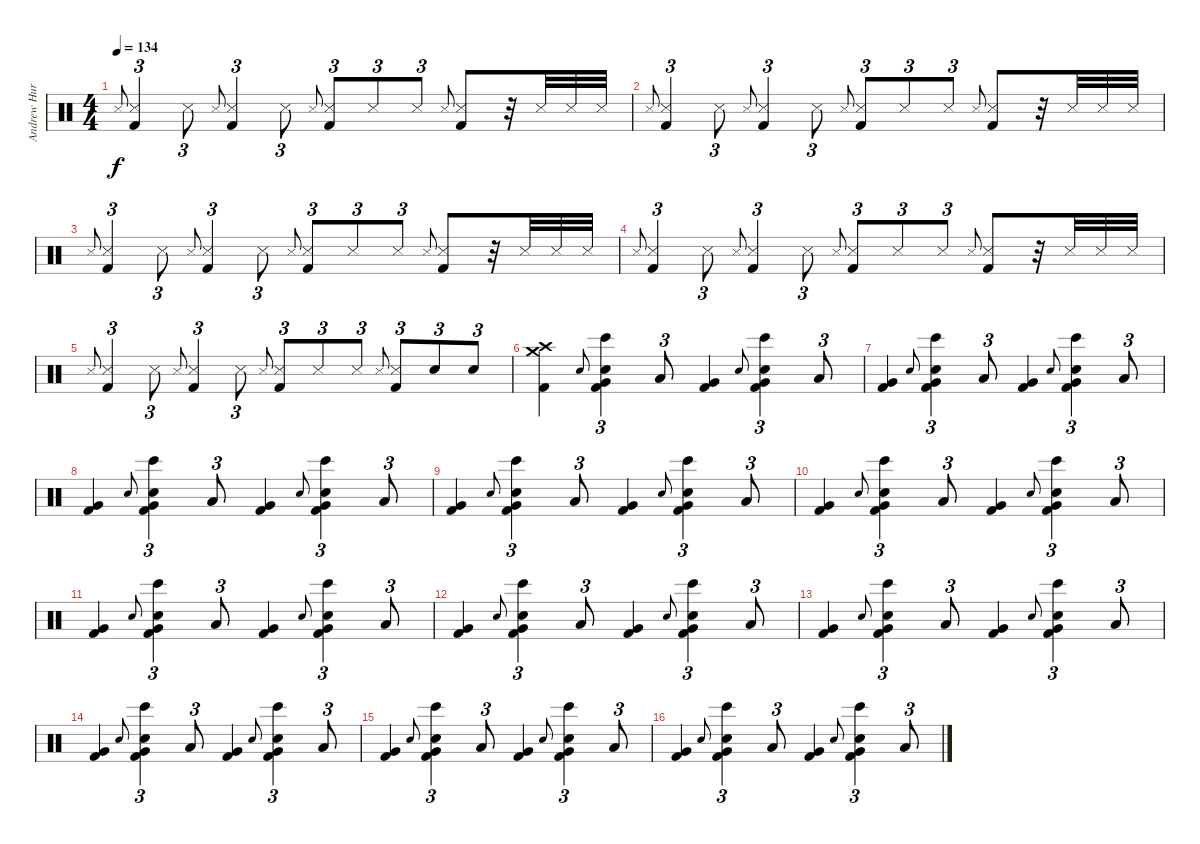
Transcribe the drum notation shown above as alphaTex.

\track ("Andrew Hurley (Drums)" "Andrew Hur") {instrument percussion}
\staff {score}
\articulation defaults
\ts (4 4)
\tempo 134
\clef neutral
\ks c "Snare (side stick) 3".8{gr onbeat dy f}
("Snare (side stick) 3" "Kick (hit) 2").4{tu (3 2)} "Snare (side stick) 3".8{tu (3 2)} "Snare (side stick) 3".8{gr onbeat} ("Snare (side stick) 3" "Kick (hit) 2").4{tu (3 2)} "Snare (side stick) 3".8{tu (3 2)} "Snare (side stick) 3".8{gr onbeat} ("Snare (side stick) 3" "Kick (hit) 2").8{tu (3 2)} "Snare (side stick) 3".8{tu (3 2)} "Snare (side stick) 3".8{tu (3 2)} "Snare (side stick) 3".8{gr onbeat} ("Snare (side stick) 3" "Kick (hit) 2").8 r.32 "Snare (side stick) 3".32 "Snare (side stick) 3".32 "Snare (side stick) 3".32 |
"Snare (side stick) 3".8{gr onbeat} ("Snare (side stick) 3" "Kick (hit) 2").4{tu (3 2)} "Snare (side stick) 3".8{tu (3 2)} "Snare (side stick) 3".8{gr onbeat} ("Snare (side stick) 3" "Kick (hit) 2").4{tu (3 2)} "Snare (side stick) 3".8{tu (3 2)} "Snare (side stick) 3".8{gr onbeat} ("Snare (side stick) 3" "Kick (hit) 2").8{tu (3 2)} "Snare (side stick) 3".8{tu (3 2)} "Snare (side stick) 3".8{tu (3 2)} "Snare (side stick) 3".8{gr onbeat} ("Snare (side stick) 3" "Kick (hit) 2").8 r.32 "Snare (side stick) 3".32 "Snare (side stick) 3".32 "Snare (side stick) 3".32 |
"Snare (side stick) 3".8{gr onbeat} ("Snare (side stick) 3" "Kick (hit) 2").4{tu (3 2)} "Snare (side stick) 3".8{tu (3 2)} "Snare (side stick) 3".8{gr onbeat} ("Snare (side stick) 3" "Kick (hit) 2").4{tu (3 2)} "Snare (side stick) 3".8{tu (3 2)} "Snare (side stick) 3".8{gr onbeat} ("Snare (side stick) 3" "Kick (hit) 2").8{tu (3 2)} "Snare (side stick) 3".8{tu (3 2)} "Snare (side stick) 3".8{tu (3 2)} "Snare (side stick) 3".8{gr onbeat} ("Snare (side stick) 3" "Kick (hit) 2").8 r.32 "Snare (side stick) 3".32 "Snare (side stick) 3".32 "Snare (side stick) 3".32 |
"Snare (side stick) 3".8{gr onbeat} ("Snare (side stick) 3" "Kick (hit) 2").4{tu (3 2)} "Snare (side stick) 3".8{tu (3 2)} "Snare (side stick) 3".8{gr onbeat} ("Snare (side stick) 3" "Kick (hit) 2").4{tu (3 2)} "Snare (side stick) 3".8{tu (3 2)} "Snare (side stick) 3".8{gr onbeat} ("Snare (side stick) 3" "Kick (hit) 2").8{tu (3 2)} "Snare (side stick) 3".8{tu (3 2)} "Snare (side stick) 3".8{tu (3 2)} "Snare (side stick) 3".8{gr onbeat} ("Snare (side stick) 3" "Kick (hit) 2").8 r.32 "Snare (side stick) 3".32 "Snare (side stick) 3".32 "Snare (side stick) 3".32 |
"Snare (side stick) 3".8{gr onbeat} ("Snare (side stick) 3" "Kick (hit) 2").4{tu (3 2)} "Snare (side stick) 3".8{tu (3 2)} "Snare (side stick) 3".8{gr onbeat} ("Snare (side stick) 3" "Kick (hit) 2").4{tu (3 2)} "Snare (side stick) 3".8{tu (3 2)} "Snare (side stick) 3".8{gr onbeat} ("Snare (side stick) 3" "Kick (hit) 2").8{tu (3 2)} "Snare (side stick) 3".8{tu (3 2)} "Snare (side stick) 3".8{tu (3 2)} "Snare (side stick) 3".8{gr onbeat} ("Snare (side stick) 3" "Kick (hit) 2").8{tu (3 2)} "Snare (hit) 2".8{tu (3 2)} "Snare (hit) 2".8{tu (3 2)} |
("Crash high (hit)" "Crash medium (hit)" "Kick (hit) 2").4 "Snare (hit)".8{gr onbeat} ("Very Low Tom (hit)" "Snare (hit) 2" "Kick (hit) 2" "Bongo High (hit)").4{tu (3 2)} "Low Tom (hit)".8{tu (3 2)} ("Very Low Tom (hit)" "Kick (hit) 2").4 "Snare (hit)".8{gr onbeat} ("Very Low Tom (hit)" "Snare (hit) 2" "Kick (hit) 2" "Bongo High (hit)").4{tu (3 2)} "Low Tom (hit)".8{tu (3 2)} |
("Very Low Tom (hit)" "Kick (hit) 2").4 "Snare (hit)".8{gr onbeat} ("Very Low Tom (hit)" "Snare (hit) 2" "Kick (hit) 2" "Bongo High (hit)").4{tu (3 2)} "Low Tom (hit)".8{tu (3 2)} ("Very Low Tom (hit)" "Kick (hit) 2").4 "Snare (hit)".8{gr onbeat} ("Very Low Tom (hit)" "Snare (hit) 2" "Kick (hit) 2" "Bongo High (hit)").4{tu (3 2)} "Low Tom (hit)".8{tu (3 2)} |
("Very Low Tom (hit)" "Kick (hit) 2").4 "Snare (hit)".8{gr onbeat} ("Very Low Tom (hit)" "Snare (hit) 2" "Kick (hit) 2" "Bongo High (hit)").4{tu (3 2)} "Low Tom (hit)".8{tu (3 2)} ("Very Low Tom (hit)" "Kick (hit) 2").4 "Snare (hit)".8{gr onbeat} ("Very Low Tom (hit)" "Snare (hit) 2" "Kick (hit) 2" "Bongo High (hit)").4{tu (3 2)} "Low Tom (hit)".8{tu (3 2)} |
("Very Low Tom (hit)" "Kick (hit) 2").4 "Snare (hit)".8{gr onbeat} ("Very Low Tom (hit)" "Snare (hit) 2" "Kick (hit) 2" "Bongo High (hit)").4{tu (3 2)} "Low Tom (hit)".8{tu (3 2)} ("Very Low Tom (hit)" "Kick (hit) 2").4 "Snare (hit)".8{gr onbeat} ("Very Low Tom (hit)" "Snare (hit) 2" "Kick (hit) 2" "Bongo High (hit)").4{tu (3 2)} "Low Tom (hit)".8{tu (3 2)} |
("Very Low Tom (hit)" "Kick (hit) 2").4 "Snare (hit)".8{gr onbeat} ("Very Low Tom (hit)" "Snare (hit) 2" "Kick (hit) 2" "Bongo High (hit)").4{tu (3 2)} "Low Tom (hit)".8{tu (3 2)} ("Very Low Tom (hit)" "Kick (hit) 2").4 "Snare (hit)".8{gr onbeat} ("Very Low Tom (hit)" "Snare (hit) 2" "Kick (hit) 2" "Bongo High (hit)").4{tu (3 2)} "Low Tom (hit)".8{tu (3 2)} |
("Very Low Tom (hit)" "Kick (hit) 2").4 "Snare (hit)".8{gr onbeat} ("Very Low Tom (hit)" "Snare (hit) 2" "Kick (hit) 2" "Bongo High (hit)").4{tu (3 2)} "Low Tom (hit)".8{tu (3 2)} ("Very Low Tom (hit)" "Kick (hit) 2").4 "Snare (hit)".8{gr onbeat} ("Very Low Tom (hit)" "Snare (hit) 2" "Kick (hit) 2" "Bongo High (hit)").4{tu (3 2)} "Low Tom (hit)".8{tu (3 2)} |
("Very Low Tom (hit)" "Kick (hit) 2").4 "Snare (hit)".8{gr onbeat} ("Very Low Tom (hit)" "Snare (hit) 2" "Kick (hit) 2" "Bongo High (hit)").4{tu (3 2)} "Low Tom (hit)".8{tu (3 2)} ("Very Low Tom (hit)" "Kick (hit) 2").4 "Snare (hit)".8{gr onbeat} ("Very Low Tom (hit)" "Snare (hit) 2" "Kick (hit) 2" "Bongo High (hit)").4{tu (3 2)} "Low Tom (hit)".8{tu (3 2)} |
("Very Low Tom (hit)" "Kick (hit) 2").4 "Snare (hit)".8{gr onbeat} ("Very Low Tom (hit)" "Snare (hit) 2" "Kick (hit) 2" "Bongo High (hit)").4{tu (3 2)} "Low Tom (hit)".8{tu (3 2)} ("Very Low Tom (hit)" "Kick (hit) 2").4 "Snare (hit)".8{gr onbeat} ("Very Low Tom (hit)" "Snare (hit) 2" "Kick (hit) 2" "Bongo High (hit)").4{tu (3 2)} "Low Tom (hit)".8{tu (3 2)} |
("Very Low Tom (hit)" "Kick (hit) 2").4 "Snare (hit)".8{gr onbeat} ("Very Low Tom (hit)" "Snare (hit) 2" "Kick (hit) 2" "Bongo High (hit)").4{tu (3 2)} "Low Tom (hit)".8{tu (3 2)} ("Very Low Tom (hit)" "Kick (hit) 2").4 "Snare (hit)".8{gr onbeat} ("Very Low Tom (hit)" "Snare (hit) 2" "Kick (hit) 2" "Bongo High (hit)").4{tu (3 2)} "Low Tom (hit)".8{tu (3 2)} |
("Very Low Tom (hit)" "Kick (hit) 2").4 "Snare (hit)".8{gr onbeat} ("Very Low Tom (hit)" "Snare (hit) 2" "Kick (hit) 2" "Bongo High (hit)").4{tu (3 2)} "Low Tom (hit)".8{tu (3 2)} ("Very Low Tom (hit)" "Kick (hit) 2").4 "Snare (hit)".8{gr onbeat} ("Very Low Tom (hit)" "Snare (hit) 2" "Kick (hit) 2" "Bongo High (hit)").4{tu (3 2)} "Low Tom (hit)".8{tu (3 2)} |
("Very Low Tom (hit)" "Kick (hit) 2").4 "Snare (hit)".8{gr onbeat} ("Very Low Tom (hit)" "Snare (hit) 2" "Kick (hit) 2" "Bongo High (hit)").4{tu (3 2)} "Low Tom (hit)".8{tu (3 2)} ("Very Low Tom (hit)" "Kick (hit) 2").4 "Snare (hit)".8{gr onbeat} ("Very Low Tom (hit)" "Snare (hit) 2" "Kick (hit) 2" "Bongo High (hit)").4{tu (3 2)} "Low Tom (hit)".8{tu (3 2)}
